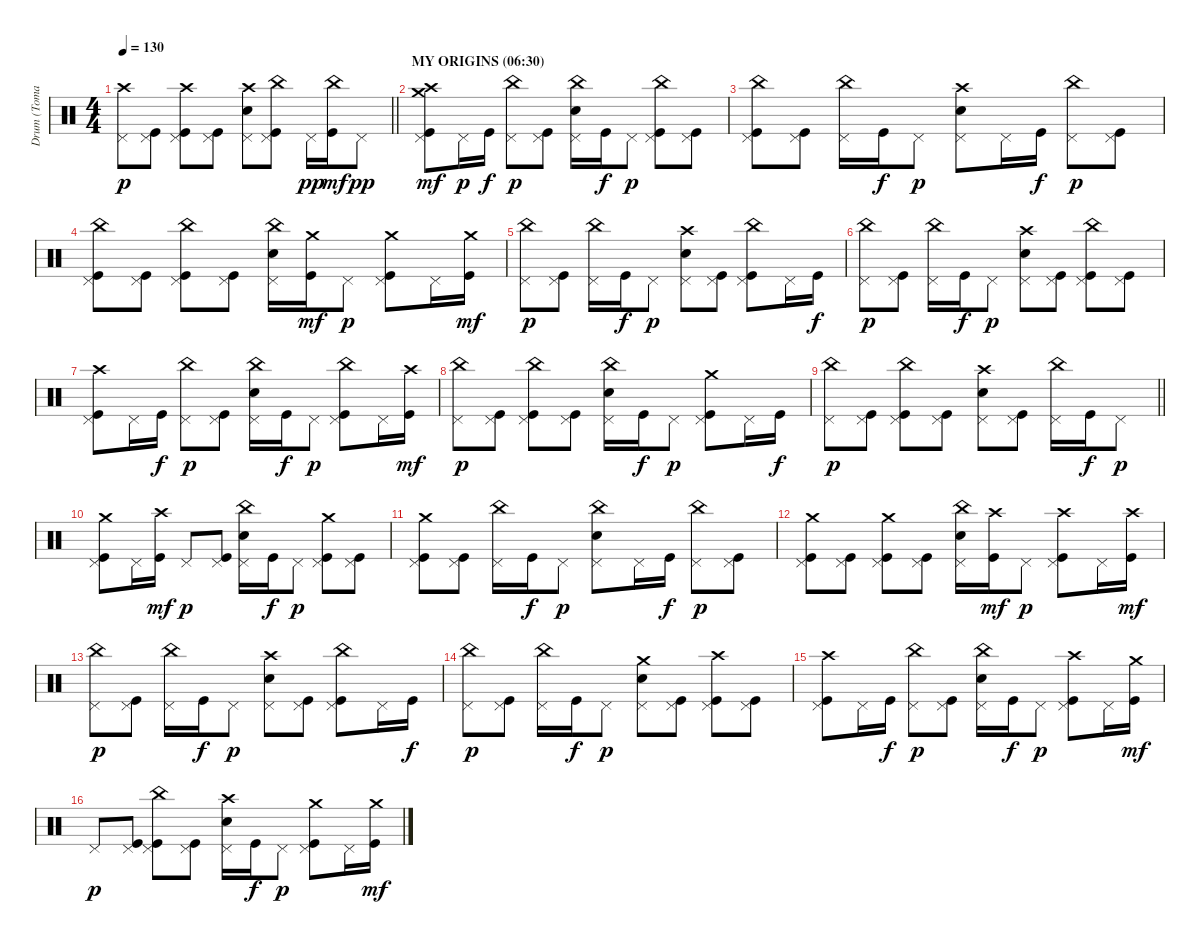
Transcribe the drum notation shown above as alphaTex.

\track ("Drum (Tomas Haake)" "Drum (Toma") {instrument percussion}
\staff {score}
\articulation defaults
\ts (4 4)
\tempo 130
\clef neutral
\barLineRight lightlight
\ks c
("Crash high (hit)" "Pedal Hi-Hat (hit)").8{dy p} ("Pedal Hi-Hat (hit)" "Kick (hit)").8 ("Crash high (hit)" "Pedal Hi-Hat (hit)" "Kick (hit)").8 ("Pedal Hi-Hat (hit)" "Kick (hit)").8 ("Crash high (hit)" "Pedal Hi-Hat (hit)" "Electric Snare (hit)").8 ("China (hit)" "Pedal Hi-Hat (hit)" "Kick (hit)").8 "Pedal Hi-Hat (hit)".16{dy pp} ("China (hit)" "Kick (hit)").16{dy mf} "Pedal Hi-Hat (hit)".8{dy pp} |
\section ("" "MY ORIGINS (06:30)")
("Crash high (hit)" "Pedal Hi-Hat (hit)" "Crash medium (hit)" "Kick (hit)").8{dy mf} "Pedal Hi-Hat (hit)".16{dy p} "Kick (hit)".16{dy f} ("China (hit)" "Pedal Hi-Hat (hit)").8{dy p} ("Pedal Hi-Hat (hit)" "Kick (hit)").8 ("China (hit)" "Pedal Hi-Hat (hit)" "Electric Snare (hit)").16 "Kick (hit)".16{dy f} "Pedal Hi-Hat (hit)".8{dy p} ("China (hit)" "Pedal Hi-Hat (hit)" "Kick (hit)").8 ("Pedal Hi-Hat (hit)" "Kick (hit)").8 |
("China (hit)" "Pedal Hi-Hat (hit)" "Kick (hit)").8 ("Pedal Hi-Hat (hit)" "Kick (hit)").8 ("China (hit)" "Pedal Hi-Hat (hit)").16 "Kick (hit)".16{dy f} "Pedal Hi-Hat (hit)".8{dy p} ("Crash high (hit)" "Pedal Hi-Hat (hit)" "Electric Snare (hit)").8 "Pedal Hi-Hat (hit)".16 "Kick (hit)".16{dy f} ("China (hit)" "Pedal Hi-Hat (hit)").8{dy p} ("Pedal Hi-Hat (hit)" "Kick (hit)").8 |
("China (hit)" "Pedal Hi-Hat (hit)" "Kick (hit)").8 ("Pedal Hi-Hat (hit)" "Kick (hit)").8 ("China (hit)" "Pedal Hi-Hat (hit)" "Kick (hit)").8 ("Pedal Hi-Hat (hit)" "Kick (hit)").8 ("China (hit)" "Pedal Hi-Hat (hit)" "Electric Snare (hit)").16 ("Crash medium (hit)" "Kick (hit)").16{dy mf} "Pedal Hi-Hat (hit)".8{dy p} ("Crash medium (hit)" "Pedal Hi-Hat (hit)" "Kick (hit)").8 "Pedal Hi-Hat (hit)".16 ("Crash medium (hit)" "Kick (hit)").16{dy mf} |
("China (hit)" "Pedal Hi-Hat (hit)").8{dy p} ("Pedal Hi-Hat (hit)" "Kick (hit)").8 ("China (hit)" "Pedal Hi-Hat (hit)").16 "Kick (hit)".16{dy f} "Pedal Hi-Hat (hit)".8{dy p} ("Crash high (hit)" "Pedal Hi-Hat (hit)" "Electric Snare (hit)").8 ("Pedal Hi-Hat (hit)" "Kick (hit)").8 ("China (hit)" "Pedal Hi-Hat (hit)" "Kick (hit)").8 "Pedal Hi-Hat (hit)".16 "Kick (hit)".16{dy f} |
("China (hit)" "Pedal Hi-Hat (hit)").8{dy p} ("Pedal Hi-Hat (hit)" "Kick (hit)").8 ("China (hit)" "Pedal Hi-Hat (hit)").16 "Kick (hit)".16{dy f} "Pedal Hi-Hat (hit)".8{dy p} ("Crash high (hit)" "Pedal Hi-Hat (hit)" "Electric Snare (hit)").8 ("Pedal Hi-Hat (hit)" "Kick (hit)").8 ("China (hit)" "Pedal Hi-Hat (hit)" "Kick (hit)").8 ("Pedal Hi-Hat (hit)" "Kick (hit)").8 |
("Crash high (hit)" "Pedal Hi-Hat (hit)" "Kick (hit)").8 "Pedal Hi-Hat (hit)".16 "Kick (hit)".16{dy f} ("China (hit)" "Pedal Hi-Hat (hit)").8{dy p} ("Pedal Hi-Hat (hit)" "Kick (hit)").8 ("China (hit)" "Pedal Hi-Hat (hit)" "Electric Snare (hit)").16 "Kick (hit)".16{dy f} "Pedal Hi-Hat (hit)".8{dy p} ("China (hit)" "Pedal Hi-Hat (hit)" "Kick (hit)").8 "Pedal Hi-Hat (hit)".16 ("Crash high (hit)" "Kick (hit)").16{dy mf} |
("China (hit)" "Pedal Hi-Hat (hit)").8{dy p} ("Pedal Hi-Hat (hit)" "Kick (hit)").8 ("China (hit)" "Pedal Hi-Hat (hit)" "Kick (hit)").8 ("Pedal Hi-Hat (hit)" "Kick (hit)").8 ("China (hit)" "Pedal Hi-Hat (hit)" "Electric Snare (hit)").16 "Kick (hit)".16{dy f} "Pedal Hi-Hat (hit)".8{dy p} ("Crash medium (hit)" "Pedal Hi-Hat (hit)" "Kick (hit)").8 "Pedal Hi-Hat (hit)".16 "Kick (hit)".16{dy f} |
\barLineRight lightlight
("China (hit)" "Pedal Hi-Hat (hit)").8{dy p} ("Pedal Hi-Hat (hit)" "Kick (hit)").8 ("China (hit)" "Pedal Hi-Hat (hit)" "Kick (hit)").8 ("Pedal Hi-Hat (hit)" "Kick (hit)").8 ("Crash high (hit)" "Pedal Hi-Hat (hit)" "Electric Snare (hit)").8 ("Pedal Hi-Hat (hit)" "Kick (hit)").8 ("China (hit)" "Pedal Hi-Hat (hit)").16 "Kick (hit)".16{dy f} "Pedal Hi-Hat (hit)".8{dy p} |
("Crash medium (hit)" "Pedal Hi-Hat (hit)" "Kick (hit)").8 "Pedal Hi-Hat (hit)".16 ("Crash high (hit)" "Kick (hit)").16{dy mf} "Pedal Hi-Hat (hit)".8{dy p} ("Pedal Hi-Hat (hit)" "Kick (hit)").8 ("China (hit)" "Pedal Hi-Hat (hit)" "Electric Snare (hit)").16 "Kick (hit)".16{dy f} "Pedal Hi-Hat (hit)".8{dy p} ("Crash medium (hit)" "Pedal Hi-Hat (hit)" "Kick (hit)").8 ("Pedal Hi-Hat (hit)" "Kick (hit)").8 |
("Crash medium (hit)" "Pedal Hi-Hat (hit)" "Kick (hit)").8 ("Pedal Hi-Hat (hit)" "Kick (hit)").8 ("China (hit)" "Pedal Hi-Hat (hit)").16 "Kick (hit)".16{dy f} "Pedal Hi-Hat (hit)".8{dy p} ("China (hit)" "Pedal Hi-Hat (hit)" "Electric Snare (hit)").8 "Pedal Hi-Hat (hit)".16 "Kick (hit)".16{dy f} ("China (hit)" "Pedal Hi-Hat (hit)").8{dy p} ("Pedal Hi-Hat (hit)" "Kick (hit)").8 |
("Crash medium (hit)" "Pedal Hi-Hat (hit)" "Kick (hit)").8 ("Pedal Hi-Hat (hit)" "Kick (hit)").8 ("Crash medium (hit)" "Pedal Hi-Hat (hit)" "Kick (hit)").8 ("Pedal Hi-Hat (hit)" "Kick (hit)").8 ("China (hit)" "Pedal Hi-Hat (hit)" "Electric Snare (hit)").16 ("Crash high (hit)" "Kick (hit)").16{dy mf} "Pedal Hi-Hat (hit)".8{dy p} ("Crash high (hit)" "Pedal Hi-Hat (hit)" "Kick (hit)").8 "Pedal Hi-Hat (hit)".16 ("Crash high (hit)" "Kick (hit)").16{dy mf} |
("China (hit)" "Pedal Hi-Hat (hit)").8{dy p} ("Pedal Hi-Hat (hit)" "Kick (hit)").8 ("China (hit)" "Pedal Hi-Hat (hit)").16 "Kick (hit)".16{dy f} "Pedal Hi-Hat (hit)".8{dy p} ("Crash high (hit)" "Pedal Hi-Hat (hit)" "Electric Snare (hit)").8 ("Pedal Hi-Hat (hit)" "Kick (hit)").8 ("China (hit)" "Pedal Hi-Hat (hit)" "Kick (hit)").8 "Pedal Hi-Hat (hit)".16 "Kick (hit)".16{dy f} |
("China (hit)" "Pedal Hi-Hat (hit)").8{dy p} ("Pedal Hi-Hat (hit)" "Kick (hit)").8 ("China (hit)" "Pedal Hi-Hat (hit)").16 "Kick (hit)".16{dy f} "Pedal Hi-Hat (hit)".8{dy p} ("Crash medium (hit)" "Pedal Hi-Hat (hit)" "Electric Snare (hit)").8 ("Pedal Hi-Hat (hit)" "Kick (hit)").8 ("Crash high (hit)" "Pedal Hi-Hat (hit)" "Kick (hit)").8 ("Pedal Hi-Hat (hit)" "Kick (hit)").8 |
("Crash high (hit)" "Pedal Hi-Hat (hit)" "Kick (hit)").8 "Pedal Hi-Hat (hit)".16 "Kick (hit)".16{dy f} ("China (hit)" "Pedal Hi-Hat (hit)").8{dy p} ("Pedal Hi-Hat (hit)" "Kick (hit)").8 ("China (hit)" "Pedal Hi-Hat (hit)" "Electric Snare (hit)").16 "Kick (hit)".16{dy f} "Pedal Hi-Hat (hit)".8{dy p} ("Crash high (hit)" "Pedal Hi-Hat (hit)" "Kick (hit)").8 "Pedal Hi-Hat (hit)".16 ("Crash medium (hit)" "Kick (hit)").16{dy mf} |
"Pedal Hi-Hat (hit)".8{dy p} ("Pedal Hi-Hat (hit)" "Kick (hit)").8 ("China (hit)" "Pedal Hi-Hat (hit)" "Kick (hit)").8 ("Pedal Hi-Hat (hit)" "Kick (hit)").8 ("Crash high (hit)" "Pedal Hi-Hat (hit)" "Electric Snare (hit)").16 "Kick (hit)".16{dy f} "Pedal Hi-Hat (hit)".8{dy p} ("Crash medium (hit)" "Pedal Hi-Hat (hit)" "Kick (hit)").8 "Pedal Hi-Hat (hit)".16 ("Crash medium (hit)" "Kick (hit)").16{dy mf}
